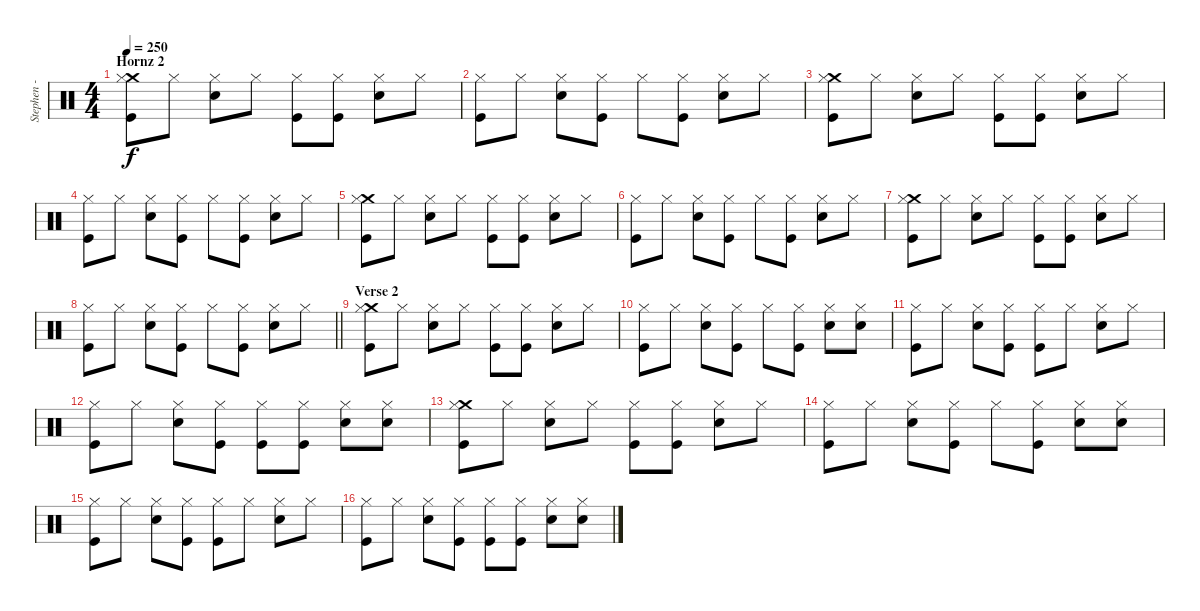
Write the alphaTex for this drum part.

\track ("Stephen - Drums" "Stephen - ") {instrument percussion}
\staff {score}
\articulation defaults
\ts (4 4)
\section ("" "Hornz 2")
\tempo 250
\clef neutral
\ks c
("Crash medium (hit)" "Hi-Hat (closed)" "Kick (hit)").8{dy f} "Hi-Hat (closed)".8 ("Hi-Hat (closed)" "Snare (hit) 2").8 "Hi-Hat (closed)".8 ("Hi-Hat (closed)" "Kick (hit)").8 ("Hi-Hat (closed)" "Kick (hit)").8 ("Hi-Hat (closed)" "Snare (hit) 2").8 "Hi-Hat (closed)".8 |
("Hi-Hat (closed)" "Kick (hit)").8 "Hi-Hat (closed)".8 ("Hi-Hat (closed)" "Snare (hit) 2").8 ("Hi-Hat (closed)" "Kick (hit)").8 "Hi-Hat (closed)".8 ("Hi-Hat (closed)" "Kick (hit)").8 ("Hi-Hat (closed)" "Snare (hit) 2").8 "Hi-Hat (closed)".8 |
("Crash medium (hit)" "Hi-Hat (closed)" "Kick (hit)").8 "Hi-Hat (closed)".8 ("Hi-Hat (closed)" "Snare (hit) 2").8 "Hi-Hat (closed)".8 ("Hi-Hat (closed)" "Kick (hit)").8 ("Hi-Hat (closed)" "Kick (hit)").8 ("Hi-Hat (closed)" "Snare (hit) 2").8 "Hi-Hat (closed)".8 |
("Hi-Hat (closed)" "Kick (hit)").8 "Hi-Hat (closed)".8 ("Hi-Hat (closed)" "Snare (hit) 2").8 ("Hi-Hat (closed)" "Kick (hit)").8 "Hi-Hat (closed)".8 ("Hi-Hat (closed)" "Kick (hit)").8 ("Hi-Hat (closed)" "Snare (hit) 2").8 "Hi-Hat (closed)".8 |
("Crash medium (hit)" "Hi-Hat (closed)" "Kick (hit)").8 "Hi-Hat (closed)".8 ("Hi-Hat (closed)" "Snare (hit) 2").8 "Hi-Hat (closed)".8 ("Hi-Hat (closed)" "Kick (hit)").8 ("Hi-Hat (closed)" "Kick (hit)").8 ("Hi-Hat (closed)" "Snare (hit) 2").8 "Hi-Hat (closed)".8 |
("Hi-Hat (closed)" "Kick (hit)").8 "Hi-Hat (closed)".8 ("Hi-Hat (closed)" "Snare (hit) 2").8 ("Hi-Hat (closed)" "Kick (hit)").8 "Hi-Hat (closed)".8 ("Hi-Hat (closed)" "Kick (hit)").8 ("Hi-Hat (closed)" "Snare (hit) 2").8 "Hi-Hat (closed)".8 |
("Crash medium (hit)" "Hi-Hat (closed)" "Kick (hit)").8 "Hi-Hat (closed)".8 ("Hi-Hat (closed)" "Snare (hit) 2").8 "Hi-Hat (closed)".8 ("Hi-Hat (closed)" "Kick (hit)").8 ("Hi-Hat (closed)" "Kick (hit)").8 ("Hi-Hat (closed)" "Snare (hit) 2").8 "Hi-Hat (closed)".8 |
\barLineRight lightlight
("Hi-Hat (closed)" "Kick (hit)").8 "Hi-Hat (closed)".8 ("Hi-Hat (closed)" "Snare (hit) 2").8 ("Hi-Hat (closed)" "Kick (hit)").8 "Hi-Hat (closed)".8 ("Hi-Hat (closed)" "Kick (hit)").8 ("Hi-Hat (closed)" "Snare (hit) 2").8 "Hi-Hat (closed)".8 |
\section ("" "Verse 2")
("Crash medium (hit)" "Hi-Hat (closed)" "Kick (hit)").8 "Hi-Hat (closed)".8 ("Hi-Hat (closed)" "Snare (hit) 2").8 "Hi-Hat (closed)".8 ("Hi-Hat (closed)" "Kick (hit)").8 ("Hi-Hat (closed)" "Kick (hit)").8 ("Hi-Hat (closed)" "Snare (hit) 2").8 "Hi-Hat (closed)".8 |
("Hi-Hat (closed)" "Kick (hit)").8 "Hi-Hat (closed)".8 ("Hi-Hat (closed)" "Snare (hit) 2").8 ("Hi-Hat (closed)" "Kick (hit)").8 "Hi-Hat (closed)".8 ("Hi-Hat (closed)" "Kick (hit)").8 ("Hi-Hat (closed)" "Snare (hit) 2").8 ("Hi-Hat (closed)" "Snare (hit) 2").8 |
("Hi-Hat (closed)" "Kick (hit)").8 "Hi-Hat (closed)".8 ("Hi-Hat (closed)" "Snare (hit) 2").8 ("Hi-Hat (closed)" "Kick (hit)").8 ("Hi-Hat (closed)" "Kick (hit)").8 "Hi-Hat (closed)".8 ("Hi-Hat (closed)" "Snare (hit) 2").8 "Hi-Hat (closed)".8 |
("Hi-Hat (closed)" "Kick (hit)").8 "Hi-Hat (closed)".8 ("Hi-Hat (closed)" "Snare (hit) 2").8 ("Hi-Hat (closed)" "Kick (hit)").8 ("Hi-Hat (closed)" "Kick (hit)").8 ("Hi-Hat (closed)" "Kick (hit)").8 ("Hi-Hat (closed)" "Snare (hit) 2").8 ("Hi-Hat (closed)" "Snare (hit) 2").8 |
("Crash medium (hit)" "Hi-Hat (closed)" "Kick (hit)").8 "Hi-Hat (closed)".8 ("Hi-Hat (closed)" "Snare (hit) 2").8 "Hi-Hat (closed)".8 ("Hi-Hat (closed)" "Kick (hit)").8 ("Hi-Hat (closed)" "Kick (hit)").8 ("Hi-Hat (closed)" "Snare (hit) 2").8 "Hi-Hat (closed)".8 |
("Hi-Hat (closed)" "Kick (hit)").8 "Hi-Hat (closed)".8 ("Hi-Hat (closed)" "Snare (hit) 2").8 ("Hi-Hat (closed)" "Kick (hit)").8 "Hi-Hat (closed)".8 ("Hi-Hat (closed)" "Kick (hit)").8 ("Hi-Hat (closed)" "Snare (hit) 2").8 ("Hi-Hat (closed)" "Snare (hit) 2").8 |
("Hi-Hat (closed)" "Kick (hit)").8 "Hi-Hat (closed)".8 ("Hi-Hat (closed)" "Snare (hit) 2").8 ("Hi-Hat (closed)" "Kick (hit)").8 ("Hi-Hat (closed)" "Kick (hit)").8 "Hi-Hat (closed)".8 ("Hi-Hat (closed)" "Snare (hit) 2").8 "Hi-Hat (closed)".8 |
("Hi-Hat (closed)" "Kick (hit)").8 "Hi-Hat (closed)".8 ("Hi-Hat (closed)" "Snare (hit) 2").8 ("Hi-Hat (closed)" "Kick (hit)").8 ("Hi-Hat (closed)" "Kick (hit)").8 ("Hi-Hat (closed)" "Kick (hit)").8 ("Hi-Hat (closed)" "Snare (hit) 2").8 ("Hi-Hat (closed)" "Snare (hit) 2").8
